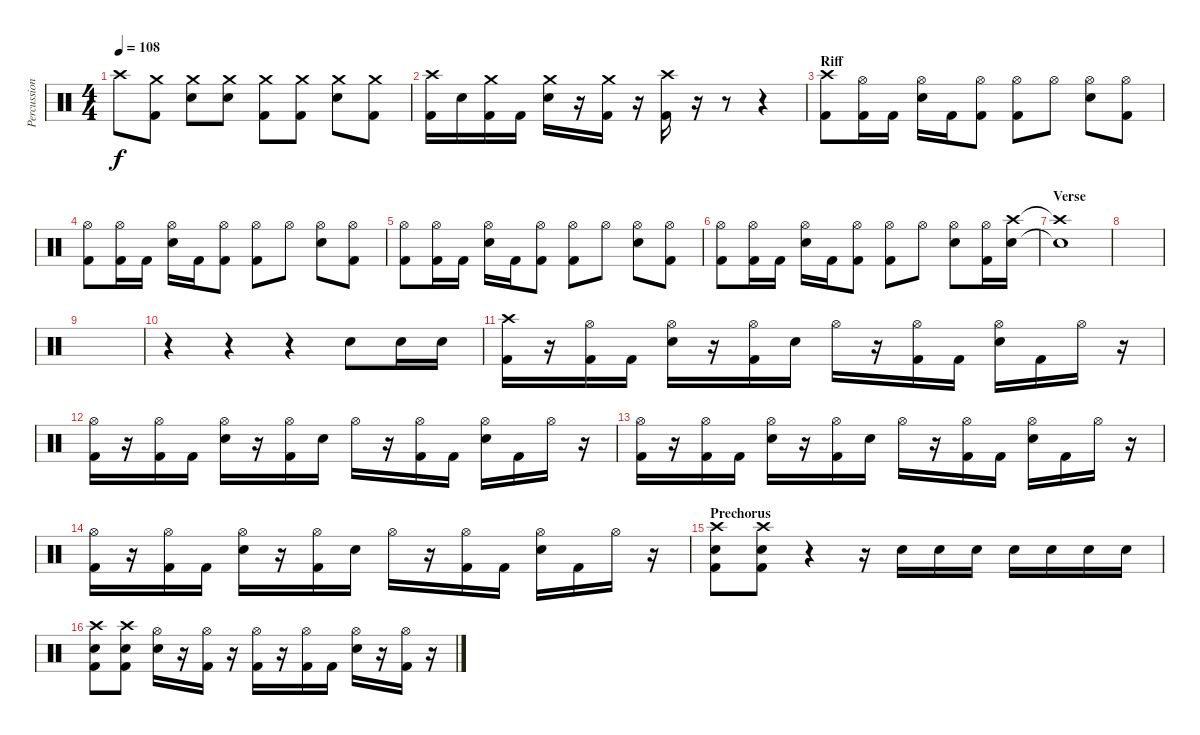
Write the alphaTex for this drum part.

\track ("Percussion" "Percussion") {instrument percussion}
\staff {score}
\articulation defaults
\ts (4 4)
\tempo 108
\clef neutral
\ks c "Crash high (hit)".8{dy f}
("Crash medium (hit)" "Kick (hit) 2").8 ("Crash medium (hit)" "Snare (hit) 2").8 ("Crash medium (hit)" "Snare (hit) 2").8 ("Crash medium (hit)" "Kick (hit) 2").8 ("Crash medium (hit)" "Kick (hit) 2").8 ("Crash medium (hit)" "Snare (hit) 2").8 ("Crash medium (hit)" "Kick (hit) 2").8 |
("Crash high (hit)" "Kick (hit) 2").16 "Snare (hit) 2".16 ("Crash medium (hit)" "Kick (hit) 2").16 "Kick (hit) 2".16 ("Crash medium (hit)" "Snare (hit) 2").16 r.16 ("Crash medium (hit)" "Kick (hit) 2").16 r.16 ("Crash high (hit)" "Kick (hit) 2").16 r.16 r.8 r.4 |
\section ("" "Riff")
("Crash high (hit)" "Kick (hit) 2").8 ("Hi-Hat (open)" "Kick (hit) 2").16 "Kick (hit) 2".16 ("Hi-Hat (open)" "Snare (hit) 2").16 "Kick (hit) 2".16 ("Hi-Hat (open)" "Kick (hit) 2").8 ("Hi-Hat (open)" "Kick (hit) 2").8 "Hi-Hat (open)".8 ("Hi-Hat (open)" "Snare (hit) 2").8 ("Hi-Hat (open)" "Kick (hit) 2").8 |
("Hi-Hat (open)" "Kick (hit) 2").8 ("Hi-Hat (open)" "Kick (hit) 2").16 "Kick (hit) 2".16 ("Hi-Hat (open)" "Snare (hit) 2").16 "Kick (hit) 2".16 ("Hi-Hat (open)" "Kick (hit) 2").8 ("Hi-Hat (open)" "Kick (hit) 2").8 "Hi-Hat (open)".8 ("Hi-Hat (open)" "Snare (hit) 2").8 ("Hi-Hat (open)" "Kick (hit) 2").8 |
("Hi-Hat (open)" "Kick (hit) 2").8 ("Hi-Hat (open)" "Kick (hit) 2").16 "Kick (hit) 2".16 ("Hi-Hat (open)" "Snare (hit) 2").16 "Kick (hit) 2".16 ("Hi-Hat (open)" "Kick (hit) 2").8 ("Hi-Hat (open)" "Kick (hit) 2").8 "Hi-Hat (open)".8 ("Hi-Hat (open)" "Snare (hit) 2").8 ("Hi-Hat (open)" "Kick (hit) 2").8 |
("Hi-Hat (open)" "Kick (hit) 2").8 ("Hi-Hat (open)" "Kick (hit) 2").16 "Kick (hit) 2".16 ("Hi-Hat (open)" "Snare (hit) 2").16 "Kick (hit) 2".16 ("Hi-Hat (open)" "Kick (hit) 2").8 ("Hi-Hat (open)" "Kick (hit) 2").8 "Hi-Hat (open)".8 ("Hi-Hat (open)" "Snare (hit) 2").8 ("Hi-Hat (open)" "Kick (hit) 2").16 ("Crash high (hit)" "Snare (hit) 2").16 |
\section ("" "Verse")
("Crash high (hit)"{t} "Snare (hit) 2"{t}).1 |
|
|
r.4 r.4 r.4 "Snare (hit) 2".8 "Snare (hit) 2".16 "Snare (hit) 2".16 |
("Crash high (hit)" "Kick (hit) 2").16 r.16 ("Hi-Hat (open)" "Kick (hit) 2").16 "Kick (hit) 2".16 ("Hi-Hat (open)" "Snare (hit) 2").16 r.16 ("Hi-Hat (open)" "Kick (hit) 2").16 "Snare (hit) 2".16 "Hi-Hat (open)".16 r.16 ("Hi-Hat (open)" "Kick (hit) 2").16 "Kick (hit) 2".16 ("Hi-Hat (open)" "Snare (hit) 2").16 "Kick (hit) 2".16 "Hi-Hat (open)".16 r.16 |
("Hi-Hat (open)" "Kick (hit) 2").16 r.16 ("Hi-Hat (open)" "Kick (hit) 2").16 "Kick (hit) 2".16 ("Hi-Hat (open)" "Snare (hit) 2").16 r.16 ("Hi-Hat (open)" "Kick (hit) 2").16 "Snare (hit) 2".16 "Hi-Hat (open)".16 r.16 ("Hi-Hat (open)" "Kick (hit) 2").16 "Kick (hit) 2".16 ("Hi-Hat (open)" "Snare (hit) 2").16 "Kick (hit) 2".16 "Hi-Hat (open)".16 r.16 |
("Hi-Hat (open)" "Kick (hit) 2").16 r.16 ("Hi-Hat (open)" "Kick (hit) 2").16 "Kick (hit) 2".16 ("Hi-Hat (open)" "Snare (hit) 2").16 r.16 ("Hi-Hat (open)" "Kick (hit) 2").16 "Snare (hit) 2".16 "Hi-Hat (open)".16 r.16 ("Hi-Hat (open)" "Kick (hit) 2").16 "Kick (hit) 2".16 ("Hi-Hat (open)" "Snare (hit) 2").16 "Kick (hit) 2".16 "Hi-Hat (open)".16 r.16 |
("Hi-Hat (open)" "Kick (hit) 2").16 r.16 ("Hi-Hat (open)" "Kick (hit) 2").16 "Kick (hit) 2".16 ("Hi-Hat (open)" "Snare (hit) 2").16 r.16 ("Hi-Hat (open)" "Kick (hit) 2").16 "Snare (hit) 2".16 "Hi-Hat (open)".16 r.16 ("Hi-Hat (open)" "Kick (hit) 2").16 "Kick (hit) 2".16 ("Hi-Hat (open)" "Snare (hit) 2").16 "Kick (hit) 2".16 "Hi-Hat (open)".16 r.16 |
\section ("" "Prechorus")
("Crash high (hit)" "Kick (hit) 2" "Snare (hit) 2").8 ("Crash high (hit)" "Kick (hit) 2" "Snare (hit) 2").8 r.4 r.16 "Snare (hit) 2".16 "Snare (hit) 2".16 "Snare (hit) 2".16 "Snare (hit) 2".16 "Snare (hit) 2".16 "Snare (hit) 2".16 "Snare (hit) 2".16 |
("Crash high (hit)" "Kick (hit) 2" "Snare (hit) 2").8 ("Crash high (hit)" "Kick (hit) 2" "Snare (hit) 2").8 ("Hi-Hat (open)" "Snare (hit) 2").16 r.16 ("Hi-Hat (open)" "Kick (hit) 2").16 r.16 ("Hi-Hat (open)" "Kick (hit) 2").16 r.16 ("Hi-Hat (open)" "Kick (hit) 2").16 "Kick (hit) 2".16 ("Hi-Hat (open)" "Snare (hit) 2").16 r.16 ("Hi-Hat (open)" "Kick (hit) 2").16 r.16
